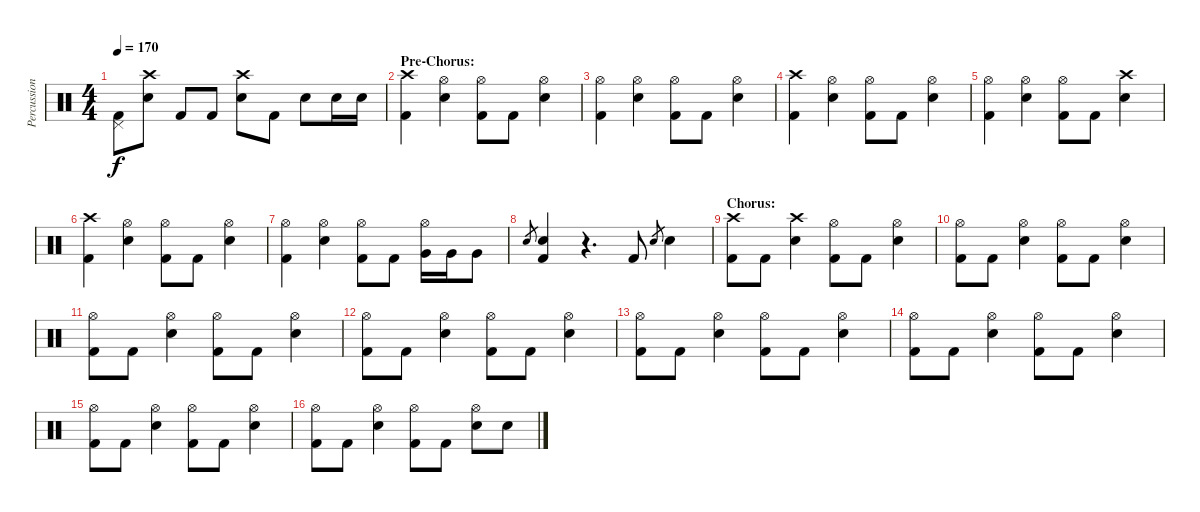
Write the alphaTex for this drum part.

\track ("Percussion" "Percussion") {instrument percussion}
\staff {score}
\articulation defaults
\ts (4 4)
\tempo 170
\clef neutral
\ks c
("Pedal Hi-Hat (hit)" "Kick (hit) 2").8{dy f} ("Crash high (hit)" "Snare (hit) 2").8 "Kick (hit) 2".8 "Kick (hit) 2".8 ("Crash high (hit)" "Snare (hit) 2").8 "Kick (hit) 2".8 "Snare (hit) 2".8 "Snare (hit) 2".16 "Snare (hit) 2".16 |
\section ("" "Pre-Chorus:")
("Crash high (hit)" "Kick (hit) 2").4 ("Hi-Hat (open)" "Snare (hit) 2").4 ("Hi-Hat (open)" "Kick (hit) 2").8 "Kick (hit) 2".8 ("Hi-Hat (open)" "Snare (hit) 2").4 |
("Hi-Hat (open)" "Kick (hit) 2").4 ("Hi-Hat (open)" "Snare (hit) 2").4 ("Hi-Hat (open)" "Kick (hit) 2").8 "Kick (hit) 2".8 ("Hi-Hat (open)" "Snare (hit) 2").4 |
("Crash high (hit)" "Kick (hit) 2").4 ("Hi-Hat (open)" "Snare (hit) 2").4 ("Hi-Hat (open)" "Kick (hit) 2").8 "Kick (hit) 2".8 ("Hi-Hat (open)" "Snare (hit) 2").4 |
("Hi-Hat (open)" "Kick (hit) 2").4 ("Hi-Hat (open)" "Snare (hit) 2").4 ("Hi-Hat (open)" "Kick (hit) 2").8 "Kick (hit) 2".8 ("Crash high (hit)" "Snare (hit) 2").4 |
("Crash high (hit)" "Kick (hit) 2").4 ("Hi-Hat (open)" "Snare (hit) 2").4 ("Hi-Hat (open)" "Kick (hit) 2").8 "Kick (hit) 2".8 ("Hi-Hat (open)" "Snare (hit) 2").4 |
("Hi-Hat (open)" "Kick (hit) 2").4 ("Hi-Hat (open)" "Snare (hit) 2").4 ("Hi-Hat (open)" "Kick (hit) 2").8 "Kick (hit) 2".8 ("Hi-Hat (open)" "Very Low Tom (hit)").16 "Very Low Tom (hit)".16 "Very Low Tom (hit)".8 |
"Snare (hit) 2".8{gr} ("Snare (hit) 2" "Kick (hit) 2").4 r.4{d} "Kick (hit) 2".8 "Snare (hit) 2".8{gr} "Snare (hit) 2".4 |
\section ("" "Chorus:")
("Crash high (hit)" "Kick (hit) 2").8 "Kick (hit) 2".8 ("Crash high (hit)" "Snare (hit) 2").4 ("Hi-Hat (open)" "Kick (hit) 2").8 "Kick (hit) 2".8 ("Hi-Hat (open)" "Snare (hit) 2").4 |
("Hi-Hat (open)" "Kick (hit) 2").8 "Kick (hit) 2".8 ("Hi-Hat (open)" "Snare (hit) 2").4 ("Hi-Hat (open)" "Kick (hit) 2").8 "Kick (hit) 2".8 ("Hi-Hat (open)" "Snare (hit) 2").4 |
("Hi-Hat (open)" "Kick (hit) 2").8 "Kick (hit) 2".8 ("Hi-Hat (open)" "Snare (hit) 2").4 ("Hi-Hat (open)" "Kick (hit) 2").8 "Kick (hit) 2".8 ("Hi-Hat (open)" "Snare (hit) 2").4 |
("Hi-Hat (open)" "Kick (hit) 2").8 "Kick (hit) 2".8 ("Hi-Hat (open)" "Snare (hit) 2").4 ("Hi-Hat (open)" "Kick (hit) 2").8 "Kick (hit) 2".8 ("Hi-Hat (open)" "Snare (hit) 2").4 |
("Hi-Hat (open)" "Kick (hit) 2").8 "Kick (hit) 2".8 ("Hi-Hat (open)" "Snare (hit) 2").4 ("Hi-Hat (open)" "Kick (hit) 2").8 "Kick (hit) 2".8 ("Hi-Hat (open)" "Snare (hit) 2").4 |
("Hi-Hat (open)" "Kick (hit) 2").8 "Kick (hit) 2".8 ("Hi-Hat (open)" "Snare (hit) 2").4 ("Hi-Hat (open)" "Kick (hit) 2").8 "Kick (hit) 2".8 ("Hi-Hat (open)" "Snare (hit) 2").4 |
("Hi-Hat (open)" "Kick (hit) 2").8 "Kick (hit) 2".8 ("Hi-Hat (open)" "Snare (hit) 2").4 ("Hi-Hat (open)" "Kick (hit) 2").8 "Kick (hit) 2".8 ("Hi-Hat (open)" "Snare (hit) 2").4 |
("Hi-Hat (open)" "Kick (hit) 2").8 "Kick (hit) 2".8 ("Hi-Hat (open)" "Snare (hit) 2").4 ("Hi-Hat (open)" "Kick (hit) 2").8 "Kick (hit) 2".8 ("Hi-Hat (open)" "Snare (hit) 2").8 "Snare (hit) 2".8
